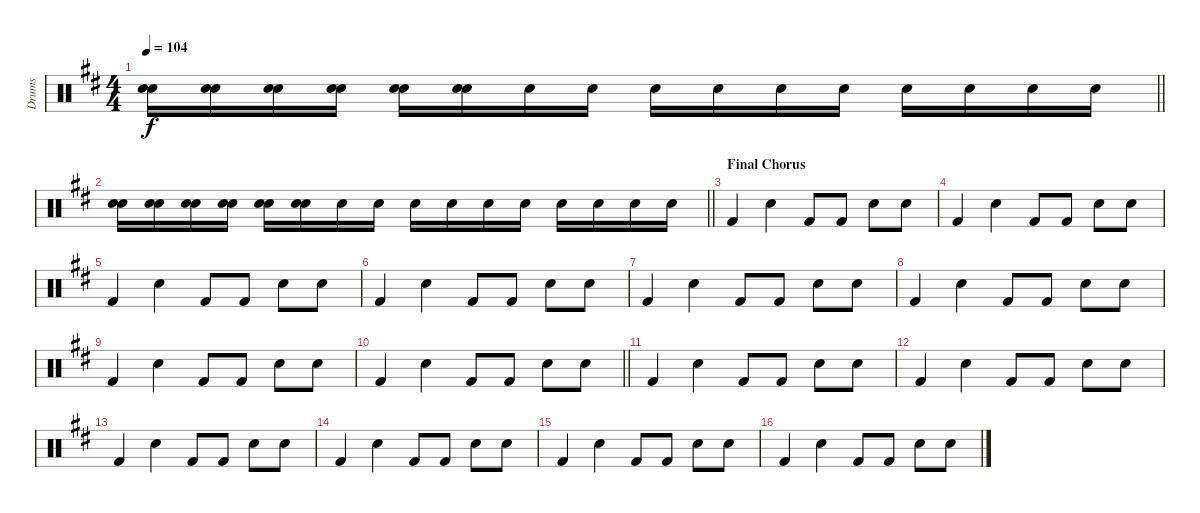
\track ("Drums" "Drums") {instrument percussion}
\staff {score}
\articulation defaults
\ts (4 4)
\tempo 104
\clef neutral
\barLineRight lightlight
\ks d
("Snare (hit)" "Electric Snare (hit)").16{dy f} ("Electric Snare (hit)" "Electric Snare (hit)").16 ("Snare (hit)" "Electric Snare (hit)").16 ("Snare (hit)" "Electric Snare (hit)").16 ("Electric Snare (hit)" "Electric Snare (hit)").16 ("Electric Snare (hit)" "Electric Snare (hit)").16 "Electric Snare (hit)".16 "Electric Snare (hit)".16 "Electric Snare (hit)".16 "Electric Snare (hit)".16 "Electric Snare (hit)".16 "Electric Snare (hit)".16 "Electric Snare (hit)".16 "Electric Snare (hit)".16 "Electric Snare (hit)".16 "Electric Snare (hit)".16 |
\barLineRight lightlight
("Snare (hit)" "Electric Snare (hit)").16 ("Electric Snare (hit)" "Electric Snare (hit)").16 ("Snare (hit)" "Electric Snare (hit)").16 ("Snare (hit)" "Electric Snare (hit)").16 ("Electric Snare (hit)" "Electric Snare (hit)").16 ("Electric Snare (hit)" "Electric Snare (hit)").16 "Electric Snare (hit)".16 "Electric Snare (hit)".16 "Electric Snare (hit)".16 "Electric Snare (hit)".16 "Electric Snare (hit)".16 "Electric Snare (hit)".16 "Electric Snare (hit)".16 "Electric Snare (hit)".16 "Electric Snare (hit)".16 "Electric Snare (hit)".16 |
\section ("" "Final Chorus")
"Kick (hit) 2".4 "Electric Snare (hit)".4 "Kick (hit) 2".8 "Kick (hit) 2".8 "Electric Snare (hit)".8 "Electric Snare (hit)".8 |
"Kick (hit) 2".4 "Electric Snare (hit)".4 "Kick (hit) 2".8 "Kick (hit) 2".8 "Electric Snare (hit)".8 "Electric Snare (hit)".8 |
"Kick (hit) 2".4 "Electric Snare (hit)".4 "Kick (hit) 2".8 "Kick (hit) 2".8 "Electric Snare (hit)".8 "Electric Snare (hit)".8 |
"Kick (hit) 2".4 "Electric Snare (hit)".4 "Kick (hit) 2".8 "Kick (hit) 2".8 "Electric Snare (hit)".8 "Electric Snare (hit)".8 |
"Kick (hit) 2".4 "Electric Snare (hit)".4 "Kick (hit) 2".8 "Kick (hit) 2".8 "Electric Snare (hit)".8 "Electric Snare (hit)".8 |
"Kick (hit) 2".4 "Electric Snare (hit)".4 "Kick (hit) 2".8 "Kick (hit) 2".8 "Electric Snare (hit)".8 "Electric Snare (hit)".8 |
"Kick (hit) 2".4 "Electric Snare (hit)".4 "Kick (hit) 2".8 "Kick (hit) 2".8 "Electric Snare (hit)".8 "Electric Snare (hit)".8 |
\barLineRight lightlight "Kick (hit) 2".4 "Electric Snare (hit)".4 "Kick (hit) 2".8 "Kick (hit) 2".8 "Electric Snare (hit)".8 "Electric Snare (hit)".8
|
"Kick (hit) 2".4 "Electric Snare (hit)".4 "Kick (hit) 2".8 "Kick (hit) 2".8 "Electric Snare (hit)".8 "Electric Snare (hit)".8 |
"Kick (hit) 2".4 "Electric Snare (hit)".4 "Kick (hit) 2".8 "Kick (hit) 2".8 "Electric Snare (hit)".8 "Electric Snare (hit)".8 |
"Kick (hit) 2".4 "Electric Snare (hit)".4 "Kick (hit) 2".8 "Kick (hit) 2".8 "Electric Snare (hit)".8 "Electric Snare (hit)".8 |
"Kick (hit) 2".4 "Electric Snare (hit)".4 "Kick (hit) 2".8 "Kick (hit) 2".8 "Electric Snare (hit)".8 "Electric Snare (hit)".8 |
"Kick (hit) 2".4 "Electric Snare (hit)".4 "Kick (hit) 2".8 "Kick (hit) 2".8 "Electric Snare (hit)".8 "Electric Snare (hit)".8 |
"Kick (hit) 2".4 "Electric Snare (hit)".4 "Kick (hit) 2".8 "Kick (hit) 2".8 "Electric Snare (hit)".8 "Electric Snare (hit)".8
